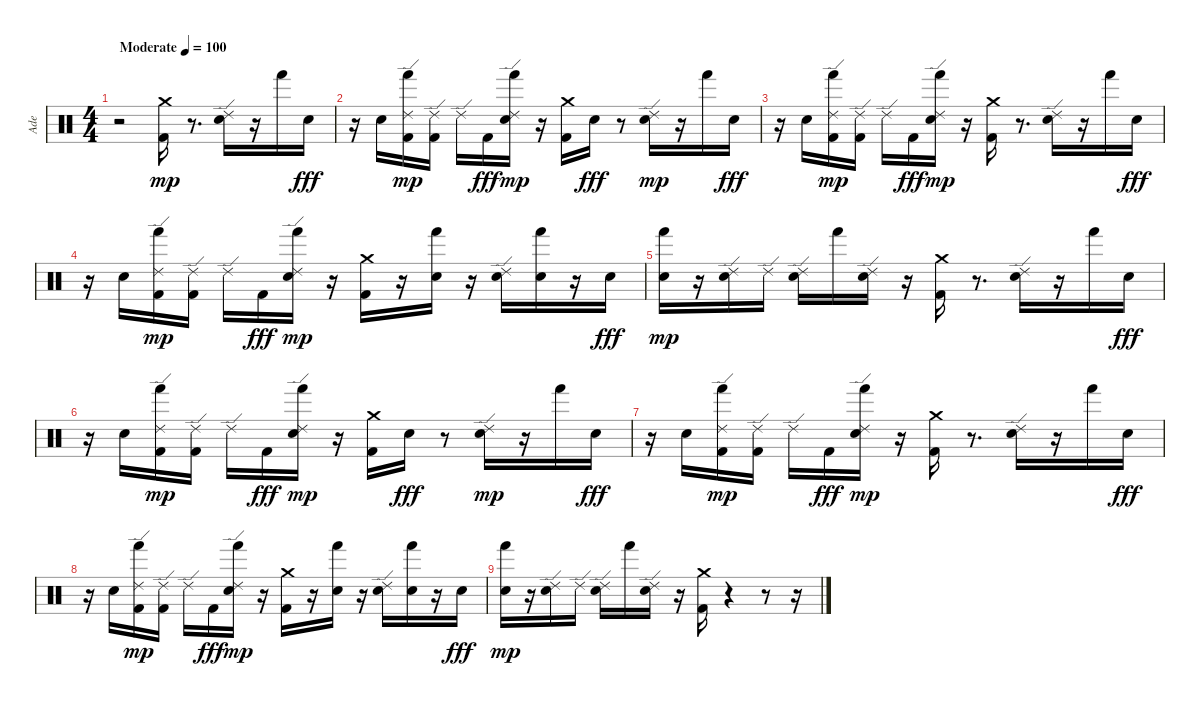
\track ("Ade" "Ade") {instrument percussion}
\staff {score}
\articulation defaults
\ts (4 4)
\tempo (100 "Moderate")
\clef neutral
\ks c
r.2{dy mp} ("Kick (hit) 2" "Crash medium (hit)").16 r.8{d} ("Electric Snare (hit)" "Ride (edge) 2").16 r.16 "Hand (hit)".16 "Electric Snare (hit)".16{dy fff} |
r.16 "Electric Snare (hit)".16 ("Kick (hit) 2" "Hand (hit)" "Ride (edge) 2").16{dy mp} ("Kick (hit) 2" "Ride (edge) 2").16 "Ride (edge) 2".16 "Kick (hit) 2".16{dy fff} ("Electric Snare (hit)" "Hand (hit)" "Ride (edge) 2").16{dy mp} r.16 ("Kick (hit) 2" "Crash medium (hit)").16 "Electric Snare (hit)".16{dy fff} r.8 ("Electric Snare (hit)" "Ride (edge) 2").16{dy mp} r.16 "Hand (hit)".16 "Electric Snare (hit)".16{dy fff} |
r.16 "Electric Snare (hit)".16 ("Kick (hit) 2" "Ride (edge) 2" "Hand (hit)").16{dy mp} ("Kick (hit) 2" "Ride (edge) 2").16 "Ride (edge) 2".16 "Kick (hit) 2".16{dy fff} ("Electric Snare (hit)" "Hand (hit)" "Ride (edge) 2").16{dy mp} r.16 ("Kick (hit) 2" "Crash medium (hit)").16 r.8{d} ("Electric Snare (hit)" "Ride (edge) 2").16 r.16 "Hand (hit)".16 "Electric Snare (hit)".16{dy fff} |
r.16 "Electric Snare (hit)".16 ("Kick (hit) 2" "Hand (hit)" "Ride (edge) 2").16{dy mp} ("Kick (hit) 2" "Ride (edge) 2").16 "Ride (edge) 2".16 "Kick (hit) 2".16{dy fff} ("Electric Snare (hit)" "Hand (hit)" "Ride (edge) 2").16{dy mp} r.16 ("Kick (hit) 2" "Crash medium (hit)").16 r.16 ("Electric Snare (hit)" "Hand (hit)").16 r.16 ("Electric Snare (hit)" "Ride (edge) 2").16 ("Electric Snare (hit)" "Hand (hit)").16 r.16 "Electric Snare (hit)".16{dy fff} |
("Electric Snare (hit)" "Hand (hit)").16{dy mp} r.16 ("Electric Snare (hit)" "Ride (edge) 2").16 "Ride (edge) 2".16 ("Electric Snare (hit)" "Ride (edge) 2").16 "Hand (hit)".16 ("Electric Snare (hit)" "Ride (edge) 2").16 r.16 ("Kick (hit) 2" "Crash medium (hit)").16 r.8{d} ("Electric Snare (hit)" "Ride (edge) 2").16 r.16 "Hand (hit)".16 "Electric Snare (hit)".16{dy fff} |
r.16 "Electric Snare (hit)".16 ("Kick (hit) 2" "Hand (hit)" "Ride (edge) 2").16{dy mp} ("Kick (hit) 2" "Ride (edge) 2").16 "Ride (edge) 2".16 "Kick (hit) 2".16{dy fff} ("Electric Snare (hit)" "Hand (hit)" "Ride (edge) 2").16{dy mp} r.16 ("Kick (hit) 2" "Crash medium (hit)").16 "Electric Snare (hit)".16{dy fff} r.8 ("Electric Snare (hit)" "Ride (edge) 2").16{dy mp} r.16 "Hand (hit)".16 "Electric Snare (hit)".16{dy fff} |
r.16 "Electric Snare (hit)".16 ("Kick (hit) 2" "Hand (hit)" "Ride (edge) 2").16{dy mp} ("Kick (hit) 2" "Ride (edge) 2").16 "Ride (edge) 2".16 "Kick (hit) 2".16{dy fff} ("Electric Snare (hit)" "Hand (hit)" "Ride (edge) 2").16{dy mp} r.16 ("Kick (hit) 2" "Crash medium (hit)").16 r.8{d} ("Electric Snare (hit)" "Ride (edge) 2").16 r.16 "Hand (hit)".16 "Electric Snare (hit)".16{dy fff} |
r.16 "Electric Snare (hit)".16 ("Kick (hit) 2" "Hand (hit)" "Ride (edge) 2").16{dy mp} ("Kick (hit) 2" "Ride (edge) 2").16 "Ride (edge) 2".16 "Kick (hit) 2".16{dy fff} ("Electric Snare (hit)" "Hand (hit)" "Ride (edge) 2").16{dy mp} r.16 ("Kick (hit) 2" "Crash medium (hit)").16 r.16 ("Electric Snare (hit)" "Hand (hit)").16 r.16 ("Electric Snare (hit)" "Ride (edge) 2").16 ("Electric Snare (hit)" "Hand (hit)").16 r.16 "Electric Snare (hit)".16{dy fff} |
("Electric Snare (hit)" "Hand (hit)").16{dy mp} r.16 ("Electric Snare (hit)" "Ride (edge) 2").16 "Ride (edge) 2".16 ("Electric Snare (hit)" "Ride (edge) 2").16 "Hand (hit)".16 ("Electric Snare (hit)" "Ride (edge) 2").16 r.16 ("Kick (hit) 2" "Crash medium (hit)").16 r.4 r.8 r.16
